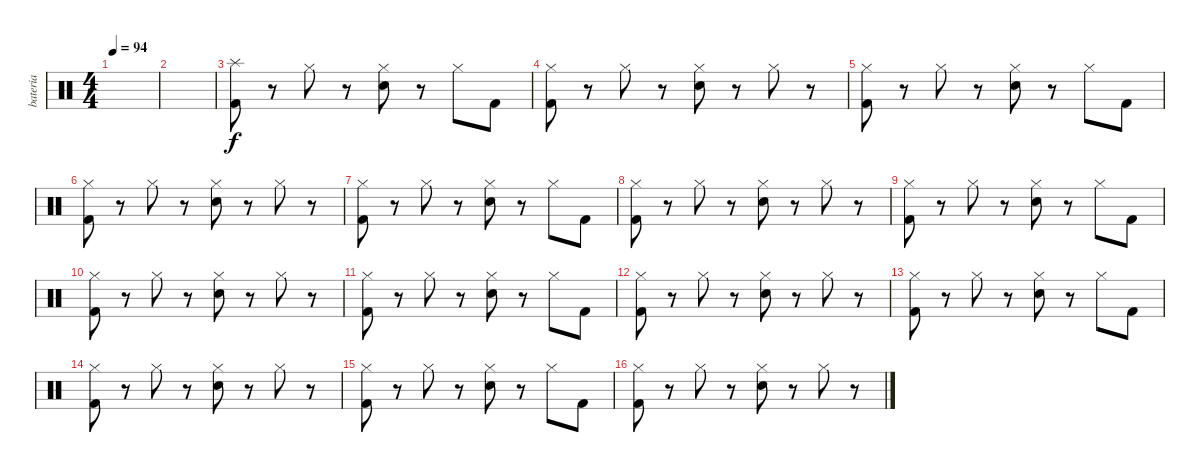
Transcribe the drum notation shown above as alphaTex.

\track ("bateria" "bateria") {instrument percussion}
\staff {score}
\articulation defaults
\ts (4 4)
\tempo 94
\clef neutral
\ks c
|
|
("Splash (hit)" "Kick (hit) 2").8 r.8 "Hi-Hat (closed)".8{dy f} r.8 ("Hi-Hat (closed)" "Snare (hit) 2").8 r.8 "Hi-Hat (closed)".8 "Kick (hit) 2".8 |
("Hi-Hat (closed)" "Kick (hit) 2").8 r.8 "Hi-Hat (closed)".8 r.8 ("Hi-Hat (closed)" "Snare (hit) 2").8 r.8 "Hi-Hat (closed)".8 r.8 |
("Hi-Hat (closed)" "Kick (hit) 2").8 r.8 "Hi-Hat (closed)".8 r.8 ("Hi-Hat (closed)" "Snare (hit) 2").8 r.8 "Hi-Hat (closed)".8 "Kick (hit) 2".8 |
("Hi-Hat (closed)" "Kick (hit) 2").8 r.8 "Hi-Hat (closed)".8 r.8 ("Hi-Hat (closed)" "Snare (hit) 2").8 r.8 "Hi-Hat (closed)".8 r.8 |
("Hi-Hat (closed)" "Kick (hit) 2").8 r.8 "Hi-Hat (closed)".8 r.8 ("Hi-Hat (closed)" "Snare (hit) 2").8 r.8 "Hi-Hat (closed)".8 "Kick (hit) 2".8 |
("Hi-Hat (closed)" "Kick (hit) 2").8 r.8 "Hi-Hat (closed)".8 r.8 ("Hi-Hat (closed)" "Snare (hit) 2").8 r.8 "Hi-Hat (closed)".8 r.8 |
("Hi-Hat (closed)" "Kick (hit) 2").8 r.8 "Hi-Hat (closed)".8 r.8 ("Hi-Hat (closed)" "Snare (hit) 2").8 r.8 "Hi-Hat (closed)".8 "Kick (hit) 2".8 |
("Hi-Hat (closed)" "Kick (hit) 2").8 r.8 "Hi-Hat (closed)".8 r.8 ("Hi-Hat (closed)" "Snare (hit) 2").8 r.8 "Hi-Hat (closed)".8 r.8 |
("Hi-Hat (closed)" "Kick (hit) 2").8 r.8 "Hi-Hat (closed)".8 r.8 ("Hi-Hat (closed)" "Snare (hit) 2").8 r.8 "Hi-Hat (closed)".8 "Kick (hit) 2".8 |
("Hi-Hat (closed)" "Kick (hit) 2").8 r.8 "Hi-Hat (closed)".8 r.8 ("Hi-Hat (closed)" "Snare (hit) 2").8 r.8 "Hi-Hat (closed)".8 r.8 |
("Hi-Hat (closed)" "Kick (hit) 2").8 r.8 "Hi-Hat (closed)".8 r.8 ("Hi-Hat (closed)" "Snare (hit) 2").8 r.8 "Hi-Hat (closed)".8 "Kick (hit) 2".8 |
("Hi-Hat (closed)" "Kick (hit) 2").8 r.8 "Hi-Hat (closed)".8 r.8 ("Hi-Hat (closed)" "Snare (hit) 2").8 r.8 "Hi-Hat (closed)".8 r.8 |
("Hi-Hat (closed)" "Kick (hit) 2").8 r.8 "Hi-Hat (closed)".8 r.8 ("Hi-Hat (closed)" "Snare (hit) 2").8 r.8 "Hi-Hat (closed)".8 "Kick (hit) 2".8 |
("Hi-Hat (closed)" "Kick (hit) 2").8 r.8 "Hi-Hat (closed)".8 r.8 ("Hi-Hat (closed)" "Snare (hit) 2").8 r.8 "Hi-Hat (closed)".8 r.8
